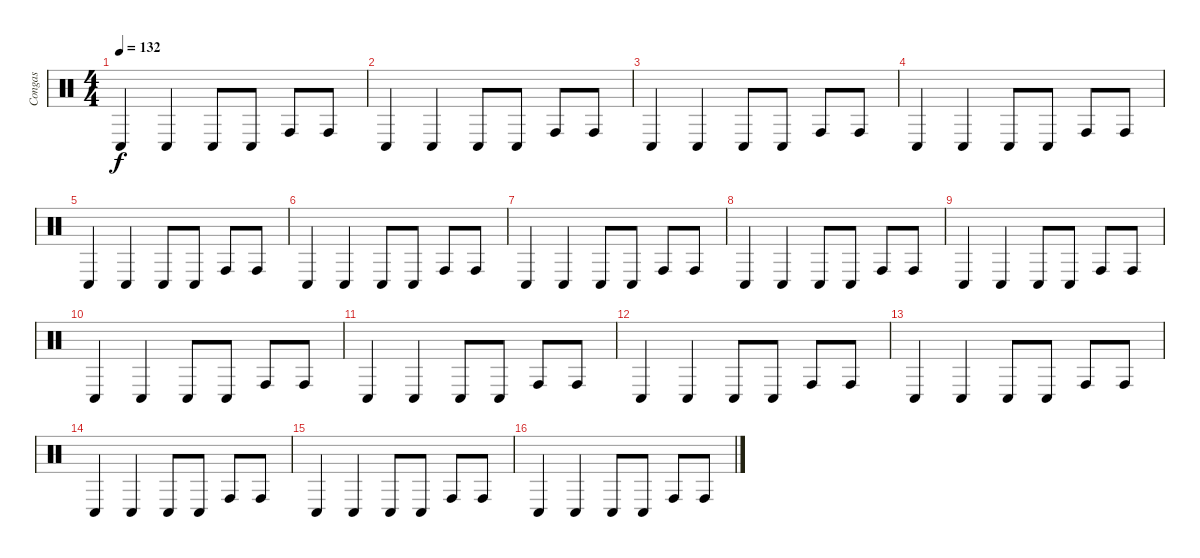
\track ("Congas" "Congas") {instrument percussion}
\staff {score}
\articulation defaults
\ts (4 4)
\tempo 132
\clef neutral
\ks c "Conga low (hit)".4{dy f} "Conga low (hit)".4 "Conga low (hit)".8 "Conga low (hit)".8 "Conga high (hit)".8 "Conga high (hit)".8
|
"Conga low (hit)".4 "Conga low (hit)".4 "Conga low (hit)".8 "Conga low (hit)".8 "Conga high (hit)".8 "Conga high (hit)".8 |
"Conga low (hit)".4 "Conga low (hit)".4 "Conga low (hit)".8 "Conga low (hit)".8 "Conga high (hit)".8 "Conga high (hit)".8 |
"Conga low (hit)".4 "Conga low (hit)".4 "Conga low (hit)".8 "Conga low (hit)".8 "Conga high (hit)".8 "Conga high (hit)".8 |
"Conga low (hit)".4 "Conga low (hit)".4 "Conga low (hit)".8 "Conga low (hit)".8 "Conga high (hit)".8 "Conga high (hit)".8 |
"Conga low (hit)".4 "Conga low (hit)".4 "Conga low (hit)".8 "Conga low (hit)".8 "Conga high (hit)".8 "Conga high (hit)".8 |
"Conga low (hit)".4 "Conga low (hit)".4 "Conga low (hit)".8 "Conga low (hit)".8 "Conga high (hit)".8 "Conga high (hit)".8 |
"Conga low (hit)".4 "Conga low (hit)".4 "Conga low (hit)".8 "Conga low (hit)".8 "Conga high (hit)".8 "Conga high (hit)".8 |
"Conga low (hit)".4 "Conga low (hit)".4 "Conga low (hit)".8 "Conga low (hit)".8 "Conga high (hit)".8 "Conga high (hit)".8 |
"Conga low (hit)".4 "Conga low (hit)".4 "Conga low (hit)".8 "Conga low (hit)".8 "Conga high (hit)".8 "Conga high (hit)".8 |
"Conga low (hit)".4 "Conga low (hit)".4 "Conga low (hit)".8 "Conga low (hit)".8 "Conga high (hit)".8 "Conga high (hit)".8 |
"Conga low (hit)".4 "Conga low (hit)".4 "Conga low (hit)".8 "Conga low (hit)".8 "Conga high (hit)".8 "Conga high (hit)".8 |
"Conga low (hit)".4 "Conga low (hit)".4 "Conga low (hit)".8 "Conga low (hit)".8 "Conga high (hit)".8 "Conga high (hit)".8 |
"Conga low (hit)".4 "Conga low (hit)".4 "Conga low (hit)".8 "Conga low (hit)".8 "Conga high (hit)".8 "Conga high (hit)".8 |
"Conga low (hit)".4 "Conga low (hit)".4 "Conga low (hit)".8 "Conga low (hit)".8 "Conga high (hit)".8 "Conga high (hit)".8 |
"Conga low (hit)".4 "Conga low (hit)".4 "Conga low (hit)".8 "Conga low (hit)".8 "Conga high (hit)".8 "Conga high (hit)".8
